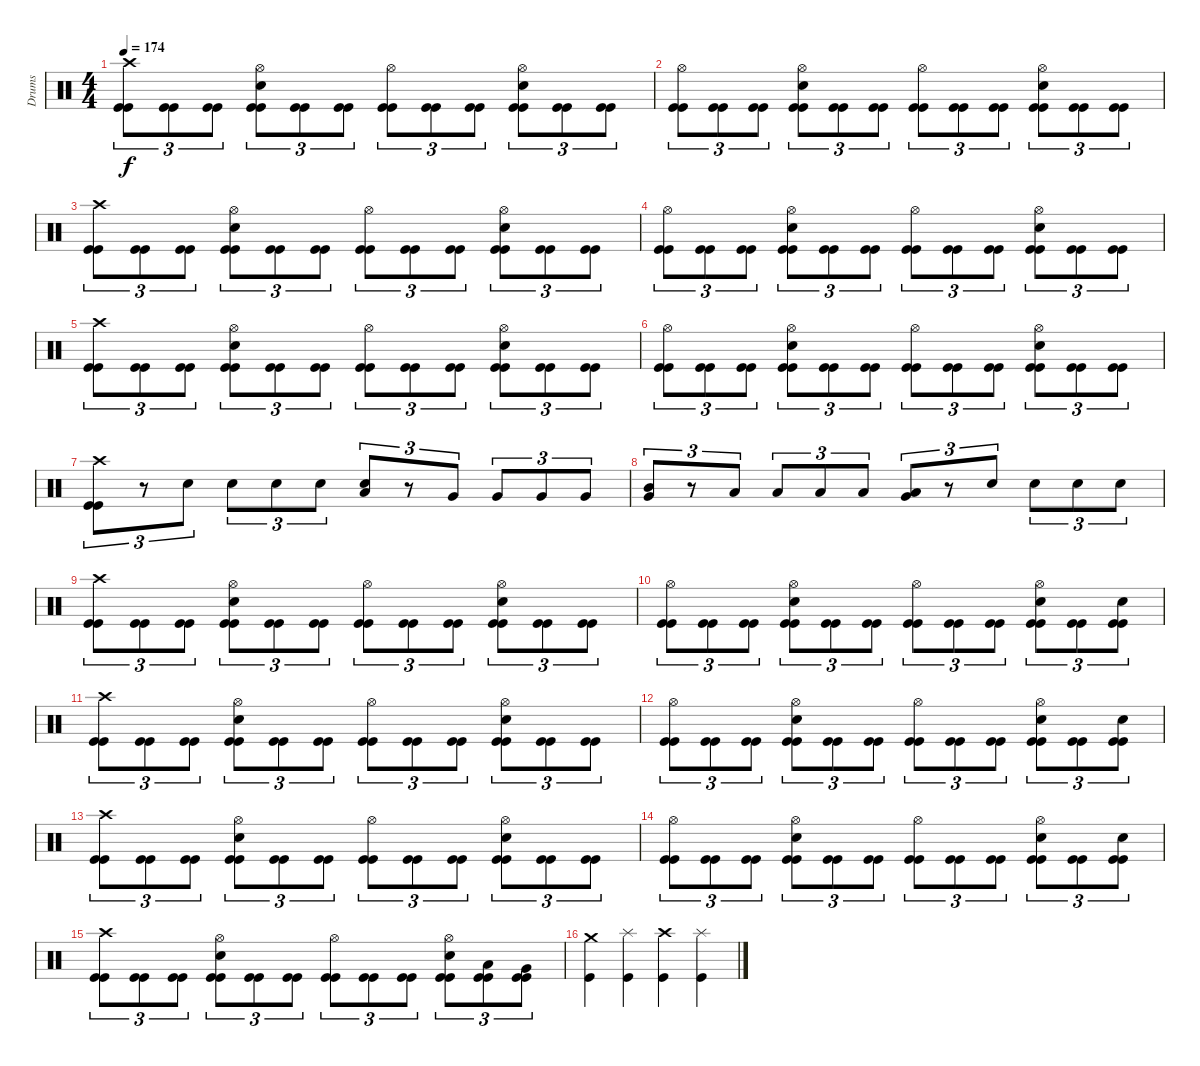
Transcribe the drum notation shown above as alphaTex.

\track ("Drums" "Drums") {instrument percussion}
\staff {score}
\articulation defaults
\ts (4 4)
\tempo 174
\clef neutral
\ks c
("Kick (hit)" "Kick (hit)" "Crash high (hit)").8{tu (3 2) dy f} ("Kick (hit)" "Kick (hit)").8{tu (3 2)} ("Kick (hit)" "Kick (hit)").8{tu (3 2)} ("Kick (hit)" "Kick (hit)" "Snare (hit) 2" "Hi-Hat (open)").8{tu (3 2)} ("Kick (hit)" "Kick (hit)").8{tu (3 2)} ("Kick (hit)" "Kick (hit)").8{tu (3 2)} ("Kick (hit)" "Kick (hit)" "Hi-Hat (open)").8{tu (3 2)} ("Kick (hit)" "Kick (hit)").8{tu (3 2)} ("Kick (hit)" "Kick (hit)").8{tu (3 2)} ("Kick (hit)" "Kick (hit)" "Snare (hit) 2" "Hi-Hat (open)").8{tu (3 2)} ("Kick (hit)" "Kick (hit)").8{tu (3 2)} ("Kick (hit)" "Kick (hit)").8{tu (3 2)} |
("Kick (hit)" "Kick (hit)" "Hi-Hat (open)").8{tu (3 2)} ("Kick (hit)" "Kick (hit)").8{tu (3 2)} ("Kick (hit)" "Kick (hit)").8{tu (3 2)} ("Kick (hit)" "Kick (hit)" "Snare (hit) 2" "Hi-Hat (open)").8{tu (3 2)} ("Kick (hit)" "Kick (hit)").8{tu (3 2)} ("Kick (hit)" "Kick (hit)").8{tu (3 2)} ("Kick (hit)" "Kick (hit)" "Hi-Hat (open)").8{tu (3 2)} ("Kick (hit)" "Kick (hit)").8{tu (3 2)} ("Kick (hit)" "Kick (hit)").8{tu (3 2)} ("Kick (hit)" "Kick (hit)" "Snare (hit) 2" "Hi-Hat (open)").8{tu (3 2)} ("Kick (hit)" "Kick (hit)").8{tu (3 2)} ("Kick (hit)" "Kick (hit)").8{tu (3 2)} |
("Kick (hit)" "Kick (hit)" "Crash high (hit)").8{tu (3 2)} ("Kick (hit)" "Kick (hit)").8{tu (3 2)} ("Kick (hit)" "Kick (hit)").8{tu (3 2)} ("Kick (hit)" "Kick (hit)" "Snare (hit) 2" "Hi-Hat (open)").8{tu (3 2)} ("Kick (hit)" "Kick (hit)").8{tu (3 2)} ("Kick (hit)" "Kick (hit)").8{tu (3 2)} ("Kick (hit)" "Kick (hit)" "Hi-Hat (open)").8{tu (3 2)} ("Kick (hit)" "Kick (hit)").8{tu (3 2)} ("Kick (hit)" "Kick (hit)").8{tu (3 2)} ("Kick (hit)" "Kick (hit)" "Snare (hit) 2" "Hi-Hat (open)").8{tu (3 2)} ("Kick (hit)" "Kick (hit)").8{tu (3 2)} ("Kick (hit)" "Kick (hit)").8{tu (3 2)} |
("Kick (hit)" "Kick (hit)" "Hi-Hat (open)").8{tu (3 2)} ("Kick (hit)" "Kick (hit)").8{tu (3 2)} ("Kick (hit)" "Kick (hit)").8{tu (3 2)} ("Kick (hit)" "Kick (hit)" "Snare (hit) 2" "Hi-Hat (open)").8{tu (3 2)} ("Kick (hit)" "Kick (hit)").8{tu (3 2)} ("Kick (hit)" "Kick (hit)").8{tu (3 2)} ("Kick (hit)" "Kick (hit)" "Hi-Hat (open)").8{tu (3 2)} ("Kick (hit)" "Kick (hit)").8{tu (3 2)} ("Kick (hit)" "Kick (hit)").8{tu (3 2)} ("Kick (hit)" "Kick (hit)" "Snare (hit) 2" "Hi-Hat (open)").8{tu (3 2)} ("Kick (hit)" "Kick (hit)").8{tu (3 2)} ("Kick (hit)" "Kick (hit)").8{tu (3 2)} |
("Kick (hit)" "Kick (hit)" "Crash high (hit)").8{tu (3 2)} ("Kick (hit)" "Kick (hit)").8{tu (3 2)} ("Kick (hit)" "Kick (hit)").8{tu (3 2)} ("Kick (hit)" "Kick (hit)" "Snare (hit) 2" "Hi-Hat (open)").8{tu (3 2)} ("Kick (hit)" "Kick (hit)").8{tu (3 2)} ("Kick (hit)" "Kick (hit)").8{tu (3 2)} ("Kick (hit)" "Kick (hit)" "Hi-Hat (open)").8{tu (3 2)} ("Kick (hit)" "Kick (hit)").8{tu (3 2)} ("Kick (hit)" "Kick (hit)").8{tu (3 2)} ("Kick (hit)" "Kick (hit)" "Snare (hit) 2" "Hi-Hat (open)").8{tu (3 2)} ("Kick (hit)" "Kick (hit)").8{tu (3 2)} ("Kick (hit)" "Kick (hit)").8{tu (3 2)} |
("Kick (hit)" "Kick (hit)" "Hi-Hat (open)").8{tu (3 2)} ("Kick (hit)" "Kick (hit)").8{tu (3 2)} ("Kick (hit)" "Kick (hit)").8{tu (3 2)} ("Kick (hit)" "Kick (hit)" "Snare (hit) 2" "Hi-Hat (open)").8{tu (3 2)} ("Kick (hit)" "Kick (hit)").8{tu (3 2)} ("Kick (hit)" "Kick (hit)").8{tu (3 2)} ("Kick (hit)" "Kick (hit)" "Hi-Hat (open)").8{tu (3 2)} ("Kick (hit)" "Kick (hit)").8{tu (3 2)} ("Kick (hit)" "Kick (hit)").8{tu (3 2)} ("Kick (hit)" "Kick (hit)" "Snare (hit) 2" "Hi-Hat (open)").8{tu (3 2)} ("Kick (hit)" "Kick (hit)").8{tu (3 2)} ("Kick (hit)" "Kick (hit)").8{tu (3 2)} |
("Kick (hit)" "Kick (hit)" "Crash high (hit)").8{tu (3 2)} r.8{tu (3 2)} "Snare (hit) 2".8{tu (3 2)} "Snare (hit) 2".8{tu (3 2)} "Snare (hit) 2".8{tu (3 2)} "Snare (hit) 2".8{tu (3 2)} ("Snare (hit) 2" "Low Tom (hit)").8{tu (3 2)} r.8{tu (3 2)} "Very Low Tom (hit)".8{tu (3 2)} "Very Low Tom (hit)".8{tu (3 2)} "Very Low Tom (hit)".8{tu (3 2)} "Very Low Tom (hit)".8{tu (3 2)} |
("Very Low Tom (hit)" "Mid Tom (hit)").8{tu (3 2)} r.8{tu (3 2)} "Low Floor Tom (hit)".8{tu (3 2)} "Low Floor Tom (hit)".8{tu (3 2)} "Low Floor Tom (hit)".8{tu (3 2)} "Low Floor Tom (hit)".8{tu (3 2)} ("Low Floor Tom (hit)" "Very Low Tom (hit)").8{tu (3 2)} r.8{tu (3 2)} "Snare (hit) 2".8{tu (3 2)} "Snare (hit) 2".8{tu (3 2)} "Snare (hit) 2".8{tu (3 2)} "Snare (hit) 2".8{tu (3 2)} |
("Kick (hit)" "Kick (hit)" "Crash high (hit)").8{tu (3 2)} ("Kick (hit)" "Kick (hit)").8{tu (3 2)} ("Kick (hit)" "Kick (hit)").8{tu (3 2)} ("Kick (hit)" "Kick (hit)" "Snare (hit) 2" "Hi-Hat (open)").8{tu (3 2)} ("Kick (hit)" "Kick (hit)").8{tu (3 2)} ("Kick (hit)" "Kick (hit)").8{tu (3 2)} ("Kick (hit)" "Kick (hit)" "Hi-Hat (open)").8{tu (3 2)} ("Kick (hit)" "Kick (hit)").8{tu (3 2)} ("Kick (hit)" "Kick (hit)").8{tu (3 2)} ("Kick (hit)" "Kick (hit)" "Snare (hit) 2" "Hi-Hat (open)").8{tu (3 2)} ("Kick (hit)" "Kick (hit)").8{tu (3 2)} ("Kick (hit)" "Kick (hit)").8{tu (3 2)} |
("Kick (hit)" "Kick (hit)" "Hi-Hat (open)").8{tu (3 2)} ("Kick (hit)" "Kick (hit)").8{tu (3 2)} ("Kick (hit)" "Kick (hit)").8{tu (3 2)} ("Kick (hit)" "Kick (hit)" "Snare (hit) 2" "Hi-Hat (open)").8{tu (3 2)} ("Kick (hit)" "Kick (hit)").8{tu (3 2)} ("Kick (hit)" "Kick (hit)").8{tu (3 2)} ("Kick (hit)" "Kick (hit)" "Hi-Hat (open)").8{tu (3 2)} ("Kick (hit)" "Kick (hit)").8{tu (3 2)} ("Kick (hit)" "Kick (hit)").8{tu (3 2)} ("Kick (hit)" "Kick (hit)" "Snare (hit) 2" "Hi-Hat (open)").8{tu (3 2)} ("Kick (hit)" "Kick (hit)").8{tu (3 2)} ("Kick (hit)" "Kick (hit)" "Snare (hit) 2").8{tu (3 2)} |
("Kick (hit)" "Kick (hit)" "Crash high (hit)").8{tu (3 2)} ("Kick (hit)" "Kick (hit)").8{tu (3 2)} ("Kick (hit)" "Kick (hit)").8{tu (3 2)} ("Kick (hit)" "Kick (hit)" "Snare (hit) 2" "Hi-Hat (open)").8{tu (3 2)} ("Kick (hit)" "Kick (hit)").8{tu (3 2)} ("Kick (hit)" "Kick (hit)").8{tu (3 2)} ("Kick (hit)" "Kick (hit)" "Hi-Hat (open)").8{tu (3 2)} ("Kick (hit)" "Kick (hit)").8{tu (3 2)} ("Kick (hit)" "Kick (hit)").8{tu (3 2)} ("Kick (hit)" "Kick (hit)" "Snare (hit) 2" "Hi-Hat (open)").8{tu (3 2)} ("Kick (hit)" "Kick (hit)").8{tu (3 2)} ("Kick (hit)" "Kick (hit)").8{tu (3 2)} |
("Kick (hit)" "Kick (hit)" "Hi-Hat (open)").8{tu (3 2)} ("Kick (hit)" "Kick (hit)").8{tu (3 2)} ("Kick (hit)" "Kick (hit)").8{tu (3 2)} ("Kick (hit)" "Kick (hit)" "Snare (hit) 2" "Hi-Hat (open)").8{tu (3 2)} ("Kick (hit)" "Kick (hit)").8{tu (3 2)} ("Kick (hit)" "Kick (hit)").8{tu (3 2)} ("Kick (hit)" "Kick (hit)" "Hi-Hat (open)").8{tu (3 2)} ("Kick (hit)" "Kick (hit)").8{tu (3 2)} ("Kick (hit)" "Kick (hit)").8{tu (3 2)} ("Kick (hit)" "Kick (hit)" "Snare (hit) 2" "Hi-Hat (open)").8{tu (3 2)} ("Kick (hit)" "Kick (hit)").8{tu (3 2)} ("Kick (hit)" "Kick (hit)" "Snare (hit) 2").8{tu (3 2)} |
("Kick (hit)" "Kick (hit)" "Crash high (hit)").8{tu (3 2)} ("Kick (hit)" "Kick (hit)").8{tu (3 2)} ("Kick (hit)" "Kick (hit)").8{tu (3 2)} ("Kick (hit)" "Kick (hit)" "Snare (hit) 2" "Hi-Hat (open)").8{tu (3 2)} ("Kick (hit)" "Kick (hit)").8{tu (3 2)} ("Kick (hit)" "Kick (hit)").8{tu (3 2)} ("Kick (hit)" "Kick (hit)" "Hi-Hat (open)").8{tu (3 2)} ("Kick (hit)" "Kick (hit)").8{tu (3 2)} ("Kick (hit)" "Kick (hit)").8{tu (3 2)} ("Kick (hit)" "Kick (hit)" "Snare (hit) 2" "Hi-Hat (open)").8{tu (3 2)} ("Kick (hit)" "Kick (hit)").8{tu (3 2)} ("Kick (hit)" "Kick (hit)").8{tu (3 2)} |
("Kick (hit)" "Kick (hit)" "Hi-Hat (open)").8{tu (3 2)} ("Kick (hit)" "Kick (hit)").8{tu (3 2)} ("Kick (hit)" "Kick (hit)").8{tu (3 2)} ("Kick (hit)" "Kick (hit)" "Snare (hit) 2" "Hi-Hat (open)").8{tu (3 2)} ("Kick (hit)" "Kick (hit)").8{tu (3 2)} ("Kick (hit)" "Kick (hit)").8{tu (3 2)} ("Kick (hit)" "Kick (hit)" "Hi-Hat (open)").8{tu (3 2)} ("Kick (hit)" "Kick (hit)").8{tu (3 2)} ("Kick (hit)" "Kick (hit)").8{tu (3 2)} ("Kick (hit)" "Kick (hit)" "Snare (hit) 2" "Hi-Hat (open)").8{tu (3 2)} ("Kick (hit)" "Kick (hit)").8{tu (3 2)} ("Kick (hit)" "Kick (hit)" "Snare (hit) 2").8{tu (3 2)} |
("Kick (hit)" "Kick (hit)" "Crash high (hit)").8{tu (3 2)} ("Kick (hit)" "Kick (hit)").8{tu (3 2)} ("Kick (hit)" "Kick (hit)").8{tu (3 2)} ("Kick (hit)" "Kick (hit)" "Snare (hit) 2" "Hi-Hat (open)").8{tu (3 2)} ("Kick (hit)" "Kick (hit)").8{tu (3 2)} ("Kick (hit)" "Kick (hit)").8{tu (3 2)} ("Kick (hit)" "Kick (hit)" "Hi-Hat (open)").8{tu (3 2)} ("Kick (hit)" "Kick (hit)").8{tu (3 2)} ("Kick (hit)" "Kick (hit)").8{tu (3 2)} ("Kick (hit)" "Kick (hit)" "Snare (hit) 2" "Hi-Hat (open)").8{tu (3 2)} ("Kick (hit)" "Kick (hit)" "Low Tom (hit)").8{tu (3 2)} ("Kick (hit)" "Kick (hit)" "Very Low Tom (hit)").8{tu (3 2)} |
("Kick (hit)" "Crash medium (hit)").4 ("Kick (hit)" "Splash (hit)").4 ("Kick (hit)" "Crash high (hit)").4 ("Kick (hit)" "Splash (hit)").4
